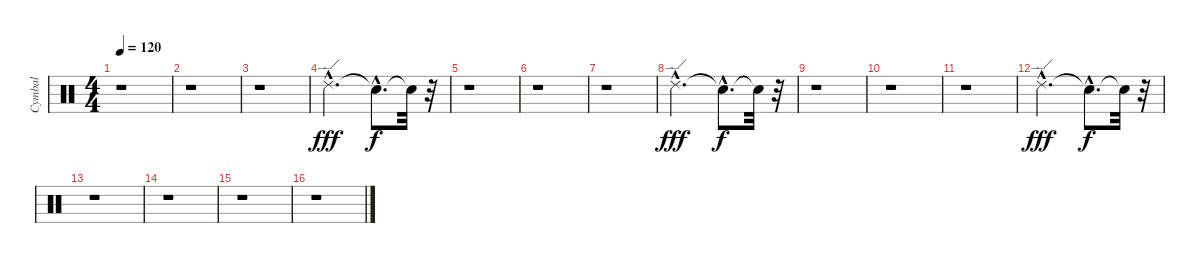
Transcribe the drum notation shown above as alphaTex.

\track ("Cymbal" "Cymbal") {instrument percussion}
\staff {score}
\articulation defaults
\ts (4 4)
\tempo 120
\clef neutral
\ks c
r.1{dy f} |
r.1 |
r.1 |
"Ride (edge) 2"{hac}.2{d dy fff} "Snare (hit)"{hac t}.8{d dy f} "Snare (hit)"{t}.32 r.32 |
r.1 |
r.1 |
r.1 |
"Ride (edge) 2"{hac}.2{d dy fff} "Snare (hit)"{hac t}.8{d dy f} "Snare (hit)"{t}.32 r.32 |
r.1 |
r.1 |
r.1 |
"Ride (edge) 2"{hac}.2{d dy fff} "Snare (hit)"{hac t}.8{d dy f} "Snare (hit)"{t}.32 r.32 |
r.1 |
r.1 |
r.1 |
r.1
